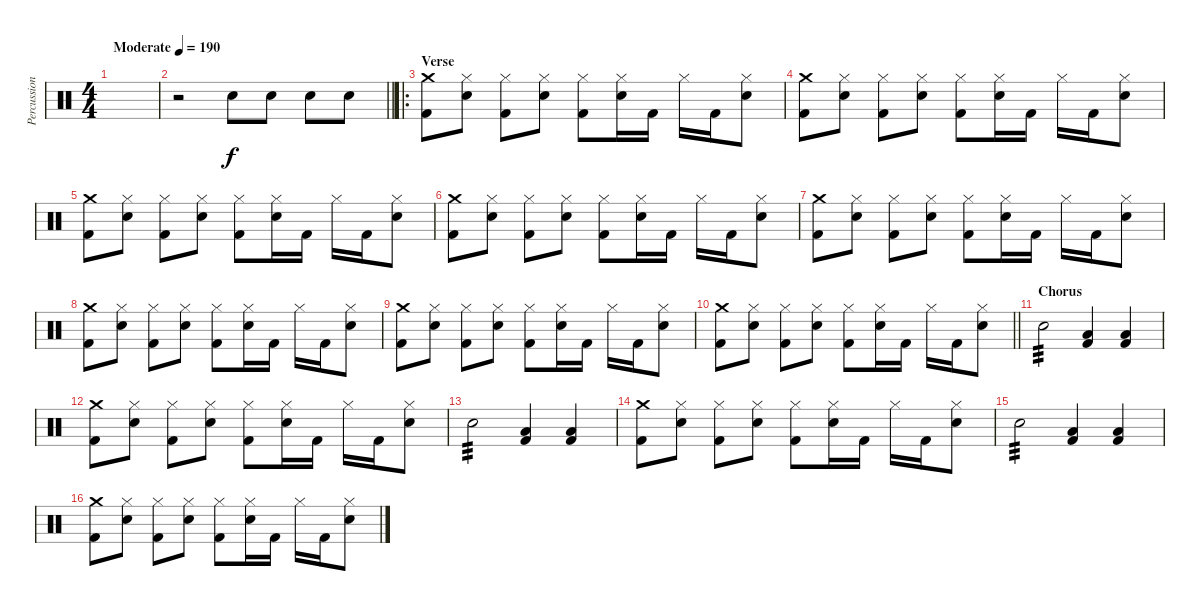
\track ("Percussion" "Percussion") {instrument percussion}
\staff {score}
\articulation defaults
\ts (4 4)
\tempo (190 "Moderate")
\clef neutral
\ks c
|
\barLineRight lightlight
r.2 "Electric Snare (hit)".8 "Electric Snare (hit)".8 "Electric Snare (hit)".8 "Electric Snare (hit)".8 |
\ro
\section ("" "Verse")
("Crash medium (hit)" "Kick (hit) 2").8 ("Hi-Hat (closed)" "Electric Snare (hit)").8 ("Hi-Hat (closed)" "Kick (hit) 2").8 ("Hi-Hat (closed)" "Electric Snare (hit)").8 ("Hi-Hat (closed)" "Kick (hit) 2").8 ("Hi-Hat (closed)" "Electric Snare (hit)").16 "Kick (hit) 2".16 "Hi-Hat (closed)".16 "Kick (hit) 2".16 ("Hi-Hat (closed)" "Electric Snare (hit)").8 |
("Crash medium (hit)" "Kick (hit) 2").8 ("Hi-Hat (closed)" "Electric Snare (hit)").8 ("Hi-Hat (closed)" "Kick (hit) 2").8 ("Hi-Hat (closed)" "Electric Snare (hit)").8 ("Hi-Hat (closed)" "Kick (hit) 2").8 ("Hi-Hat (closed)" "Electric Snare (hit)").16 "Kick (hit) 2".16 "Hi-Hat (closed)".16 "Kick (hit) 2".16 ("Hi-Hat (closed)" "Electric Snare (hit)").8 |
("Crash medium (hit)" "Kick (hit) 2").8 ("Hi-Hat (closed)" "Electric Snare (hit)").8 ("Hi-Hat (closed)" "Kick (hit) 2").8 ("Hi-Hat (closed)" "Electric Snare (hit)").8 ("Hi-Hat (closed)" "Kick (hit) 2").8 ("Hi-Hat (closed)" "Electric Snare (hit)").16 "Kick (hit) 2".16 "Hi-Hat (closed)".16 "Kick (hit) 2".16 ("Hi-Hat (closed)" "Electric Snare (hit)").8 |
("Crash medium (hit)" "Kick (hit) 2").8 ("Hi-Hat (closed)" "Electric Snare (hit)").8 ("Hi-Hat (closed)" "Kick (hit) 2").8 ("Hi-Hat (closed)" "Electric Snare (hit)").8 ("Hi-Hat (closed)" "Kick (hit) 2").8 ("Hi-Hat (closed)" "Electric Snare (hit)").16 "Kick (hit) 2".16 "Hi-Hat (closed)".16 "Kick (hit) 2".16 ("Hi-Hat (closed)" "Electric Snare (hit)").8 |
("Crash medium (hit)" "Kick (hit) 2").8 ("Hi-Hat (closed)" "Electric Snare (hit)").8 ("Hi-Hat (closed)" "Kick (hit) 2").8 ("Hi-Hat (closed)" "Electric Snare (hit)").8 ("Hi-Hat (closed)" "Kick (hit) 2").8 ("Hi-Hat (closed)" "Electric Snare (hit)").16 "Kick (hit) 2".16 "Hi-Hat (closed)".16 "Kick (hit) 2".16 ("Hi-Hat (closed)" "Electric Snare (hit)").8 |
("Crash medium (hit)" "Kick (hit) 2").8 ("Hi-Hat (closed)" "Electric Snare (hit)").8 ("Hi-Hat (closed)" "Kick (hit) 2").8 ("Hi-Hat (closed)" "Electric Snare (hit)").8 ("Hi-Hat (closed)" "Kick (hit) 2").8 ("Hi-Hat (closed)" "Electric Snare (hit)").16 "Kick (hit) 2".16 "Hi-Hat (closed)".16 "Kick (hit) 2".16 ("Hi-Hat (closed)" "Electric Snare (hit)").8 |
("Crash medium (hit)" "Kick (hit) 2").8 ("Hi-Hat (closed)" "Electric Snare (hit)").8 ("Hi-Hat (closed)" "Kick (hit) 2").8 ("Hi-Hat (closed)" "Electric Snare (hit)").8 ("Hi-Hat (closed)" "Kick (hit) 2").8 ("Hi-Hat (closed)" "Electric Snare (hit)").16 "Kick (hit) 2".16 "Hi-Hat (closed)".16 "Kick (hit) 2".16 ("Hi-Hat (closed)" "Electric Snare (hit)").8 |
\barLineRight lightlight
("Crash medium (hit)" "Kick (hit) 2").8 ("Hi-Hat (closed)" "Electric Snare (hit)").8 ("Hi-Hat (closed)" "Kick (hit) 2").8 ("Hi-Hat (closed)" "Electric Snare (hit)").8 ("Hi-Hat (closed)" "Kick (hit) 2").8 ("Hi-Hat (closed)" "Electric Snare (hit)").16 "Kick (hit) 2".16 "Hi-Hat (closed)".16 "Kick (hit) 2".16 ("Hi-Hat (closed)" "Electric Snare (hit)").8 |
\section ("" "Chorus")
"Electric Snare (hit)".2{tp 3} ("Low Floor Tom (hit)" "Kick (hit) 2").4 ("Low Floor Tom (hit)" "Kick (hit) 2").4 |
("Crash medium (hit)" "Kick (hit) 2").8 ("Hi-Hat (closed)" "Electric Snare (hit)").8 ("Hi-Hat (closed)" "Kick (hit) 2").8 ("Hi-Hat (closed)" "Electric Snare (hit)").8 ("Hi-Hat (closed)" "Kick (hit) 2").8 ("Hi-Hat (closed)" "Electric Snare (hit)").16 "Kick (hit) 2".16 "Hi-Hat (closed)".16 "Kick (hit) 2".16 ("Hi-Hat (closed)" "Electric Snare (hit)").8 |
"Electric Snare (hit)".2{tp 3} ("Low Floor Tom (hit)" "Kick (hit) 2").4 ("Low Floor Tom (hit)" "Kick (hit) 2").4 |
("Crash medium (hit)" "Kick (hit) 2").8 ("Hi-Hat (closed)" "Electric Snare (hit)").8 ("Hi-Hat (closed)" "Kick (hit) 2").8 ("Hi-Hat (closed)" "Electric Snare (hit)").8 ("Hi-Hat (closed)" "Kick (hit) 2").8 ("Hi-Hat (closed)" "Electric Snare (hit)").16 "Kick (hit) 2".16 "Hi-Hat (closed)".16 "Kick (hit) 2".16 ("Hi-Hat (closed)" "Electric Snare (hit)").8 |
"Electric Snare (hit)".2{tp 3} ("Low Floor Tom (hit)" "Kick (hit) 2").4 ("Low Floor Tom (hit)" "Kick (hit) 2").4 |
("Crash medium (hit)" "Kick (hit) 2").8 ("Hi-Hat (closed)" "Electric Snare (hit)").8 ("Hi-Hat (closed)" "Kick (hit) 2").8 ("Hi-Hat (closed)" "Electric Snare (hit)").8 ("Hi-Hat (closed)" "Kick (hit) 2").8 ("Hi-Hat (closed)" "Electric Snare (hit)").16 "Kick (hit) 2".16 "Hi-Hat (closed)".16 "Kick (hit) 2".16 ("Hi-Hat (closed)" "Electric Snare (hit)").8
